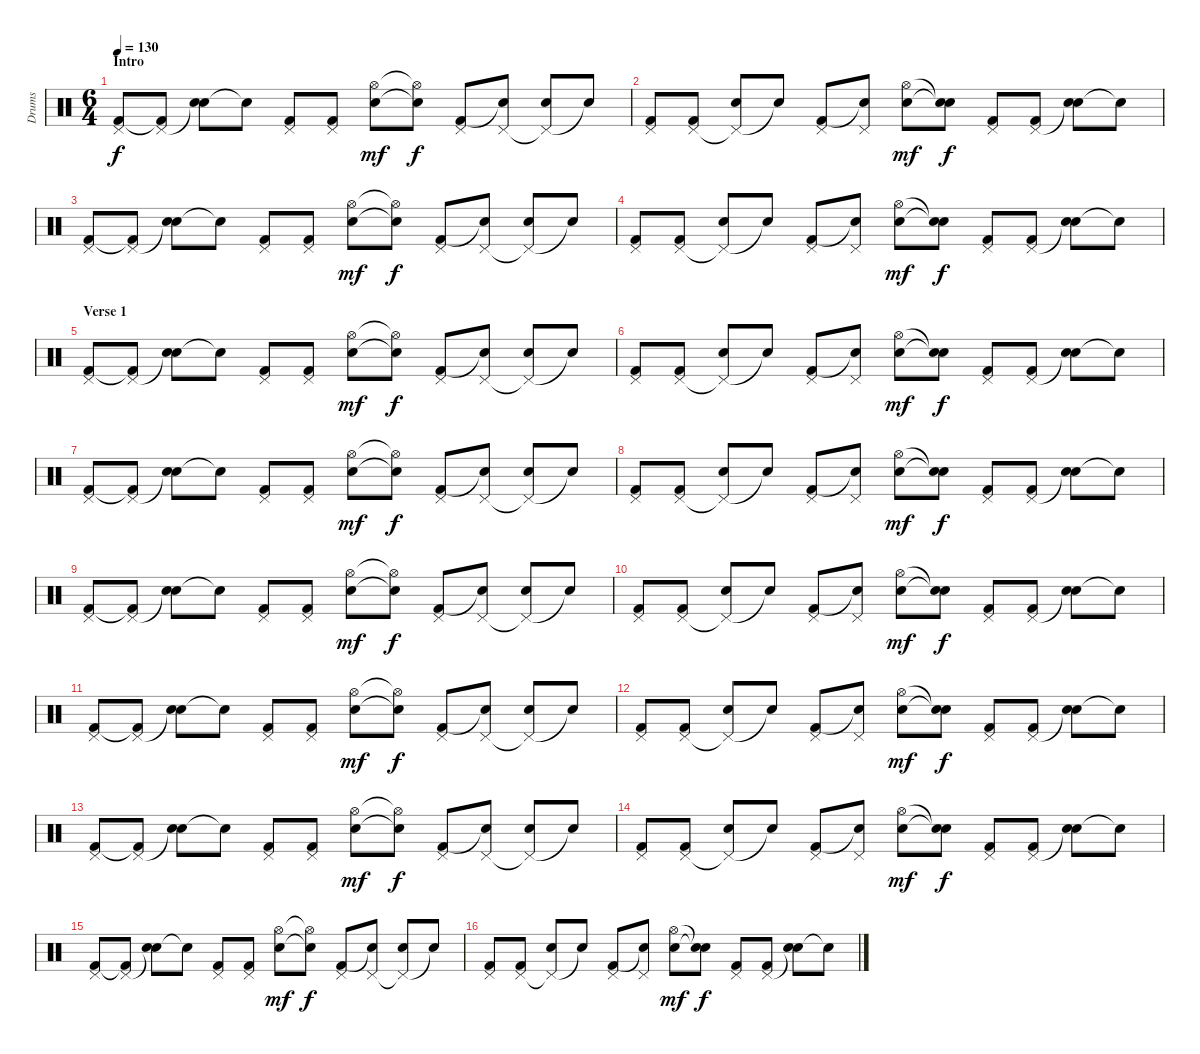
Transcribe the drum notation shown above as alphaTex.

\track ("Drums" "Drums") {instrument percussion}
\staff {score}
\articulation defaults
\ts (6 4)
\section ("" "Intro")
\tempo 130
\clef neutral
\ks c
("Pedal Hi-Hat (hit)" "Kick (hit) 2").8{dy f} ("Pedal Hi-Hat (hit)" "Kick (hit) 2"{t}).8 ("Snare (hit)"{t} "Electric Snare (hit)").8 "Snare (hit)"{t}.8 ("Pedal Hi-Hat (hit)" "Kick (hit) 2").8 ("Pedal Hi-Hat (hit)" "Kick (hit) 2").8 ("Hi-Hat (open)" "Electric Snare (hit)").8{dy mf} ("Hi-Hat (open)"{t} "Electric Snare (hit)"{t}).8{dy f} ("Pedal Hi-Hat (hit)" "Kick (hit) 2").8 ("Pedal Hi-Hat (hit)" "Snare (hit)"{t}).8 ("Pedal Hi-Hat (hit)"{t} "Electric Snare (hit)").8 "Snare (hit)"{t}.8 |
("Pedal Hi-Hat (hit)" "Kick (hit) 2").8 ("Pedal Hi-Hat (hit)" "Kick (hit) 2").8 ("Pedal Hi-Hat (hit)"{t} "Electric Snare (hit)").8 "Snare (hit)"{t}.8 ("Pedal Hi-Hat (hit)" "Kick (hit) 2").8 ("Pedal Hi-Hat (hit)" "Snare (hit)"{t}).8 ("Hi-Hat (open)" "Electric Snare (hit)").8{dy mf} ("Snare (hit)"{t} "Snare (hit)"{t}).8{dy f} ("Pedal Hi-Hat (hit)" "Kick (hit) 2").8 ("Pedal Hi-Hat (hit)" "Kick (hit) 2").8 ("Snare (hit)"{t} "Electric Snare (hit)").8 "Snare (hit)"{t}.8 |
("Pedal Hi-Hat (hit)" "Kick (hit) 2").8 ("Pedal Hi-Hat (hit)" "Kick (hit) 2"{t}).8 ("Snare (hit)"{t} "Electric Snare (hit)").8 "Snare (hit)"{t}.8 ("Pedal Hi-Hat (hit)" "Kick (hit) 2").8 ("Pedal Hi-Hat (hit)" "Kick (hit) 2").8 ("Hi-Hat (open)" "Electric Snare (hit)").8{dy mf} ("Hi-Hat (open)"{t} "Electric Snare (hit)"{t}).8{dy f} ("Pedal Hi-Hat (hit)" "Kick (hit) 2").8 ("Pedal Hi-Hat (hit)" "Snare (hit)"{t}).8 ("Pedal Hi-Hat (hit)"{t} "Electric Snare (hit)").8 "Snare (hit)"{t}.8 |
("Pedal Hi-Hat (hit)" "Kick (hit) 2").8 ("Pedal Hi-Hat (hit)" "Kick (hit) 2").8 ("Pedal Hi-Hat (hit)"{t} "Electric Snare (hit)").8 "Snare (hit)"{t}.8 ("Pedal Hi-Hat (hit)" "Kick (hit) 2").8 ("Pedal Hi-Hat (hit)" "Snare (hit)"{t}).8 ("Hi-Hat (open)" "Electric Snare (hit)").8{dy mf} ("Snare (hit)"{t} "Snare (hit)"{t}).8{dy f} ("Pedal Hi-Hat (hit)" "Kick (hit) 2").8 ("Pedal Hi-Hat (hit)" "Kick (hit) 2").8 ("Snare (hit)"{t} "Electric Snare (hit)").8 "Snare (hit)"{t}.8 |
\section ("" "Verse 1")
("Pedal Hi-Hat (hit)" "Kick (hit) 2").8 ("Pedal Hi-Hat (hit)" "Kick (hit) 2"{t}).8 ("Snare (hit)"{t} "Electric Snare (hit)").8 "Snare (hit)"{t}.8 ("Pedal Hi-Hat (hit)" "Kick (hit) 2").8 ("Pedal Hi-Hat (hit)" "Kick (hit) 2").8 ("Hi-Hat (open)" "Electric Snare (hit)").8{dy mf} ("Hi-Hat (open)"{t} "Electric Snare (hit)"{t}).8{dy f} ("Pedal Hi-Hat (hit)" "Kick (hit) 2").8 ("Pedal Hi-Hat (hit)" "Snare (hit)"{t}).8 ("Pedal Hi-Hat (hit)"{t} "Electric Snare (hit)").8 "Snare (hit)"{t}.8 |
("Pedal Hi-Hat (hit)" "Kick (hit) 2").8 ("Pedal Hi-Hat (hit)" "Kick (hit) 2").8 ("Pedal Hi-Hat (hit)"{t} "Electric Snare (hit)").8 "Snare (hit)"{t}.8 ("Pedal Hi-Hat (hit)" "Kick (hit) 2").8 ("Pedal Hi-Hat (hit)" "Snare (hit)"{t}).8 ("Hi-Hat (open)" "Electric Snare (hit)").8{dy mf} ("Snare (hit)"{t} "Snare (hit)"{t}).8{dy f} ("Pedal Hi-Hat (hit)" "Kick (hit) 2").8 ("Pedal Hi-Hat (hit)" "Kick (hit) 2").8 ("Snare (hit)"{t} "Electric Snare (hit)").8 "Snare (hit)"{t}.8 |
("Pedal Hi-Hat (hit)" "Kick (hit) 2").8 ("Pedal Hi-Hat (hit)" "Kick (hit) 2"{t}).8 ("Snare (hit)"{t} "Electric Snare (hit)").8 "Snare (hit)"{t}.8 ("Pedal Hi-Hat (hit)" "Kick (hit) 2").8 ("Pedal Hi-Hat (hit)" "Kick (hit) 2").8 ("Hi-Hat (open)" "Electric Snare (hit)").8{dy mf} ("Hi-Hat (open)"{t} "Electric Snare (hit)"{t}).8{dy f} ("Pedal Hi-Hat (hit)" "Kick (hit) 2").8 ("Pedal Hi-Hat (hit)" "Snare (hit)"{t}).8 ("Pedal Hi-Hat (hit)"{t} "Electric Snare (hit)").8 "Snare (hit)"{t}.8 |
("Pedal Hi-Hat (hit)" "Kick (hit) 2").8 ("Pedal Hi-Hat (hit)" "Kick (hit) 2").8 ("Pedal Hi-Hat (hit)"{t} "Electric Snare (hit)").8 "Snare (hit)"{t}.8 ("Pedal Hi-Hat (hit)" "Kick (hit) 2").8 ("Pedal Hi-Hat (hit)" "Snare (hit)"{t}).8 ("Hi-Hat (open)" "Electric Snare (hit)").8{dy mf} ("Snare (hit)"{t} "Snare (hit)"{t}).8{dy f} ("Pedal Hi-Hat (hit)" "Kick (hit) 2").8 ("Pedal Hi-Hat (hit)" "Kick (hit) 2").8 ("Snare (hit)"{t} "Electric Snare (hit)").8 "Snare (hit)"{t}.8 |
("Pedal Hi-Hat (hit)" "Kick (hit) 2").8 ("Pedal Hi-Hat (hit)" "Kick (hit) 2"{t}).8 ("Snare (hit)"{t} "Electric Snare (hit)").8 "Snare (hit)"{t}.8 ("Pedal Hi-Hat (hit)" "Kick (hit) 2").8 ("Pedal Hi-Hat (hit)" "Kick (hit) 2").8 ("Hi-Hat (open)" "Electric Snare (hit)").8{dy mf} ("Hi-Hat (open)"{t} "Electric Snare (hit)"{t}).8{dy f} ("Pedal Hi-Hat (hit)" "Kick (hit) 2").8 ("Pedal Hi-Hat (hit)" "Snare (hit)"{t}).8 ("Pedal Hi-Hat (hit)"{t} "Electric Snare (hit)").8 "Snare (hit)"{t}.8 |
("Pedal Hi-Hat (hit)" "Kick (hit) 2").8 ("Pedal Hi-Hat (hit)" "Kick (hit) 2").8 ("Pedal Hi-Hat (hit)"{t} "Electric Snare (hit)").8 "Snare (hit)"{t}.8 ("Pedal Hi-Hat (hit)" "Kick (hit) 2").8 ("Pedal Hi-Hat (hit)" "Snare (hit)"{t}).8 ("Hi-Hat (open)" "Electric Snare (hit)").8{dy mf} ("Snare (hit)"{t} "Snare (hit)"{t}).8{dy f} ("Pedal Hi-Hat (hit)" "Kick (hit) 2").8 ("Pedal Hi-Hat (hit)" "Kick (hit) 2").8 ("Snare (hit)"{t} "Electric Snare (hit)").8 "Snare (hit)"{t}.8 |
("Pedal Hi-Hat (hit)" "Kick (hit) 2").8 ("Pedal Hi-Hat (hit)" "Kick (hit) 2"{t}).8 ("Snare (hit)"{t} "Electric Snare (hit)").8 "Snare (hit)"{t}.8 ("Pedal Hi-Hat (hit)" "Kick (hit) 2").8 ("Pedal Hi-Hat (hit)" "Kick (hit) 2").8 ("Hi-Hat (open)" "Electric Snare (hit)").8{dy mf} ("Hi-Hat (open)"{t} "Electric Snare (hit)"{t}).8{dy f} ("Pedal Hi-Hat (hit)" "Kick (hit) 2").8 ("Pedal Hi-Hat (hit)" "Snare (hit)"{t}).8 ("Pedal Hi-Hat (hit)"{t} "Electric Snare (hit)").8 "Snare (hit)"{t}.8 |
("Pedal Hi-Hat (hit)" "Kick (hit) 2").8 ("Pedal Hi-Hat (hit)" "Kick (hit) 2").8 ("Pedal Hi-Hat (hit)"{t} "Electric Snare (hit)").8 "Snare (hit)"{t}.8 ("Pedal Hi-Hat (hit)" "Kick (hit) 2").8 ("Pedal Hi-Hat (hit)" "Snare (hit)"{t}).8 ("Hi-Hat (open)" "Electric Snare (hit)").8{dy mf} ("Snare (hit)"{t} "Snare (hit)"{t}).8{dy f} ("Pedal Hi-Hat (hit)" "Kick (hit) 2").8 ("Pedal Hi-Hat (hit)" "Kick (hit) 2").8 ("Snare (hit)"{t} "Electric Snare (hit)").8 "Snare (hit)"{t}.8 |
("Pedal Hi-Hat (hit)" "Kick (hit) 2").8 ("Pedal Hi-Hat (hit)" "Kick (hit) 2"{t}).8 ("Snare (hit)"{t} "Electric Snare (hit)").8 "Snare (hit)"{t}.8 ("Pedal Hi-Hat (hit)" "Kick (hit) 2").8 ("Pedal Hi-Hat (hit)" "Kick (hit) 2").8 ("Hi-Hat (open)" "Electric Snare (hit)").8{dy mf} ("Hi-Hat (open)"{t} "Electric Snare (hit)"{t}).8{dy f} ("Pedal Hi-Hat (hit)" "Kick (hit) 2").8 ("Pedal Hi-Hat (hit)" "Snare (hit)"{t}).8 ("Pedal Hi-Hat (hit)"{t} "Electric Snare (hit)").8 "Snare (hit)"{t}.8 |
("Pedal Hi-Hat (hit)" "Kick (hit) 2").8 ("Pedal Hi-Hat (hit)" "Kick (hit) 2").8 ("Pedal Hi-Hat (hit)"{t} "Electric Snare (hit)").8 "Snare (hit)"{t}.8 ("Pedal Hi-Hat (hit)" "Kick (hit) 2").8 ("Pedal Hi-Hat (hit)" "Snare (hit)"{t}).8 ("Hi-Hat (open)" "Electric Snare (hit)").8{dy mf} ("Snare (hit)"{t} "Snare (hit)"{t}).8{dy f} ("Pedal Hi-Hat (hit)" "Kick (hit) 2").8 ("Pedal Hi-Hat (hit)" "Kick (hit) 2").8 ("Snare (hit)"{t} "Electric Snare (hit)").8 "Snare (hit)"{t}.8 |
("Pedal Hi-Hat (hit)" "Kick (hit) 2").8 ("Pedal Hi-Hat (hit)" "Kick (hit) 2"{t}).8 ("Snare (hit)"{t} "Electric Snare (hit)").8 "Snare (hit)"{t}.8 ("Pedal Hi-Hat (hit)" "Kick (hit) 2").8 ("Pedal Hi-Hat (hit)" "Kick (hit) 2").8 ("Hi-Hat (open)" "Electric Snare (hit)").8{dy mf} ("Hi-Hat (open)"{t} "Electric Snare (hit)"{t}).8{dy f} ("Pedal Hi-Hat (hit)" "Kick (hit) 2").8 ("Pedal Hi-Hat (hit)" "Snare (hit)"{t}).8 ("Pedal Hi-Hat (hit)"{t} "Electric Snare (hit)").8 "Snare (hit)"{t}.8 |
("Pedal Hi-Hat (hit)" "Kick (hit) 2").8 ("Pedal Hi-Hat (hit)" "Kick (hit) 2").8 ("Pedal Hi-Hat (hit)"{t} "Electric Snare (hit)").8 "Snare (hit)"{t}.8 ("Pedal Hi-Hat (hit)" "Kick (hit) 2").8 ("Pedal Hi-Hat (hit)" "Snare (hit)"{t}).8 ("Hi-Hat (open)" "Electric Snare (hit)").8{dy mf} ("Snare (hit)"{t} "Snare (hit)"{t}).8{dy f} ("Pedal Hi-Hat (hit)" "Kick (hit) 2").8 ("Pedal Hi-Hat (hit)" "Kick (hit) 2").8 ("Snare (hit)"{t} "Electric Snare (hit)").8 "Snare (hit)"{t}.8
